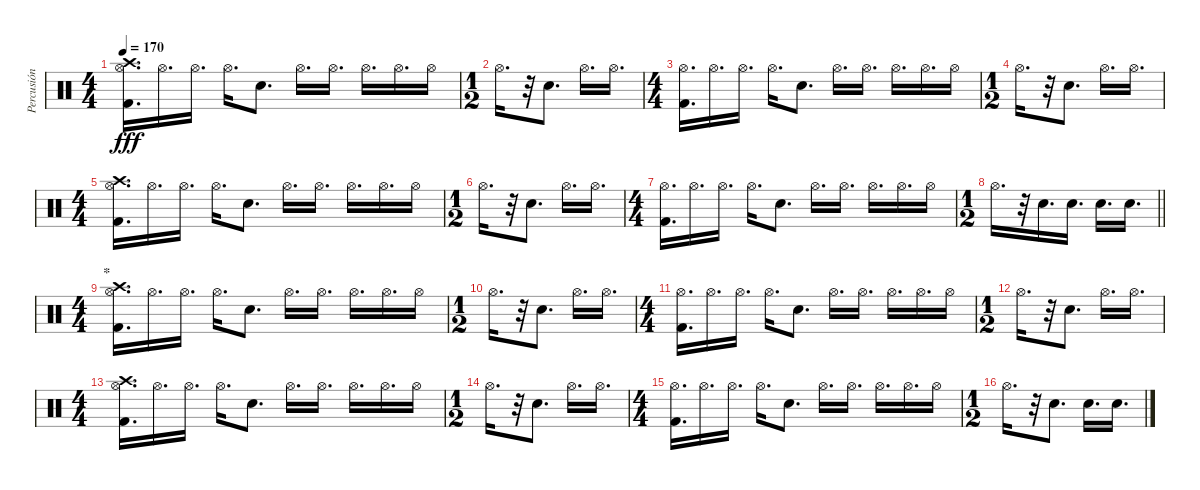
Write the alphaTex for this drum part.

\track ("Percusión" "Percusión") {instrument percussion}
\staff {score}
\articulation defaults
\ts (4 4)
\tempo 170
\clef neutral
\ks c
("Crash high (hit)" "Hi-Hat (open)" "Kick (hit) 2").16{d dy fff} "Hi-Hat (open)".16{d} "Hi-Hat (open)".16{d} "Hi-Hat (open)".16{d} "Electric Snare (hit)".8{d} "Hi-Hat (open)".16{d} "Hi-Hat (open)".16{d} "Hi-Hat (open)".16{d} "Hi-Hat (open)".16{d} "Hi-Hat (open)".16 |
\ts (1 2)
"Hi-Hat (open)".16{d} r.32 "Electric Snare (hit)".8{d} "Hi-Hat (open)".16{d} "Hi-Hat (open)".16{d} |
\ts (4 4)
("Hi-Hat (open)" "Kick (hit) 2").16{d} "Hi-Hat (open)".16{d} "Hi-Hat (open)".16{d} "Hi-Hat (open)".16{d} "Electric Snare (hit)".8{d} "Hi-Hat (open)".16{d} "Hi-Hat (open)".16{d} "Hi-Hat (open)".16{d} "Hi-Hat (open)".16{d} "Hi-Hat (open)".16 |
\ts (1 2)
"Hi-Hat (open)".16{d} r.32 "Electric Snare (hit)".8{d} "Hi-Hat (open)".16{d} "Hi-Hat (open)".16{d} |
\ts (4 4)
("Crash high (hit)" "Hi-Hat (open)" "Kick (hit) 2").16{d} "Hi-Hat (open)".16{d} "Hi-Hat (open)".16{d} "Hi-Hat (open)".16{d} "Electric Snare (hit)".8{d} "Hi-Hat (open)".16{d} "Hi-Hat (open)".16{d} "Hi-Hat (open)".16{d} "Hi-Hat (open)".16{d} "Hi-Hat (open)".16 |
\ts (1 2)
"Hi-Hat (open)".16{d} r.32 "Electric Snare (hit)".8{d} "Hi-Hat (open)".16{d} "Hi-Hat (open)".16{d} |
\ts (4 4)
("Hi-Hat (open)" "Kick (hit) 2").16{d} "Hi-Hat (open)".16{d} "Hi-Hat (open)".16{d} "Hi-Hat (open)".16{d} "Electric Snare (hit)".8{d} "Hi-Hat (open)".16{d} "Hi-Hat (open)".16{d} "Hi-Hat (open)".16{d} "Hi-Hat (open)".16{d} "Hi-Hat (open)".16 |
\ts (1 2)
\barLineRight lightlight "Hi-Hat (open)".16{d}
r.32 "Electric Snare (hit)".16{d} "Electric Snare (hit)".16{d} "Electric Snare (hit)".16{d} "Electric Snare (hit)".16{d} |
\ts (4 4)
\section ("" "*")
("Crash high (hit)" "Hi-Hat (open)" "Kick (hit) 2").16{d} "Hi-Hat (open)".16{d} "Hi-Hat (open)".16{d} "Hi-Hat (open)".16{d} "Electric Snare (hit)".8{d} "Hi-Hat (open)".16{d} "Hi-Hat (open)".16{d} "Hi-Hat (open)".16{d} "Hi-Hat (open)".16{d} "Hi-Hat (open)".16 |
\ts (1 2)
"Hi-Hat (open)".16{d} r.32 "Electric Snare (hit)".8{d} "Hi-Hat (open)".16{d} "Hi-Hat (open)".16{d} |
\ts (4 4)
("Hi-Hat (open)" "Kick (hit) 2").16{d} "Hi-Hat (open)".16{d} "Hi-Hat (open)".16{d} "Hi-Hat (open)".16{d} "Electric Snare (hit)".8{d} "Hi-Hat (open)".16{d} "Hi-Hat (open)".16{d} "Hi-Hat (open)".16{d} "Hi-Hat (open)".16{d} "Hi-Hat (open)".16 |
\ts (1 2)
"Hi-Hat (open)".16{d} r.32 "Electric Snare (hit)".8{d} "Hi-Hat (open)".16{d} "Hi-Hat (open)".16{d} |
\ts (4 4)
("Crash high (hit)" "Hi-Hat (open)" "Kick (hit) 2").16{d} "Hi-Hat (open)".16{d} "Hi-Hat (open)".16{d} "Hi-Hat (open)".16{d} "Electric Snare (hit)".8{d} "Hi-Hat (open)".16{d} "Hi-Hat (open)".16{d} "Hi-Hat (open)".16{d} "Hi-Hat (open)".16{d} "Hi-Hat (open)".16 |
\ts (1 2)
"Hi-Hat (open)".16{d} r.32 "Electric Snare (hit)".8{d} "Hi-Hat (open)".16{d} "Hi-Hat (open)".16{d} |
\ts (4 4)
("Hi-Hat (open)" "Kick (hit) 2").16{d} "Hi-Hat (open)".16{d} "Hi-Hat (open)".16{d} "Hi-Hat (open)".16{d} "Electric Snare (hit)".8{d} "Hi-Hat (open)".16{d} "Hi-Hat (open)".16{d} "Hi-Hat (open)".16{d} "Hi-Hat (open)".16{d} "Hi-Hat (open)".16 |
\ts (1 2)
"Hi-Hat (open)".16{d} r.32 "Electric Snare (hit)".8{d} "Electric Snare (hit)".16{d} "Electric Snare (hit)".16{d}
